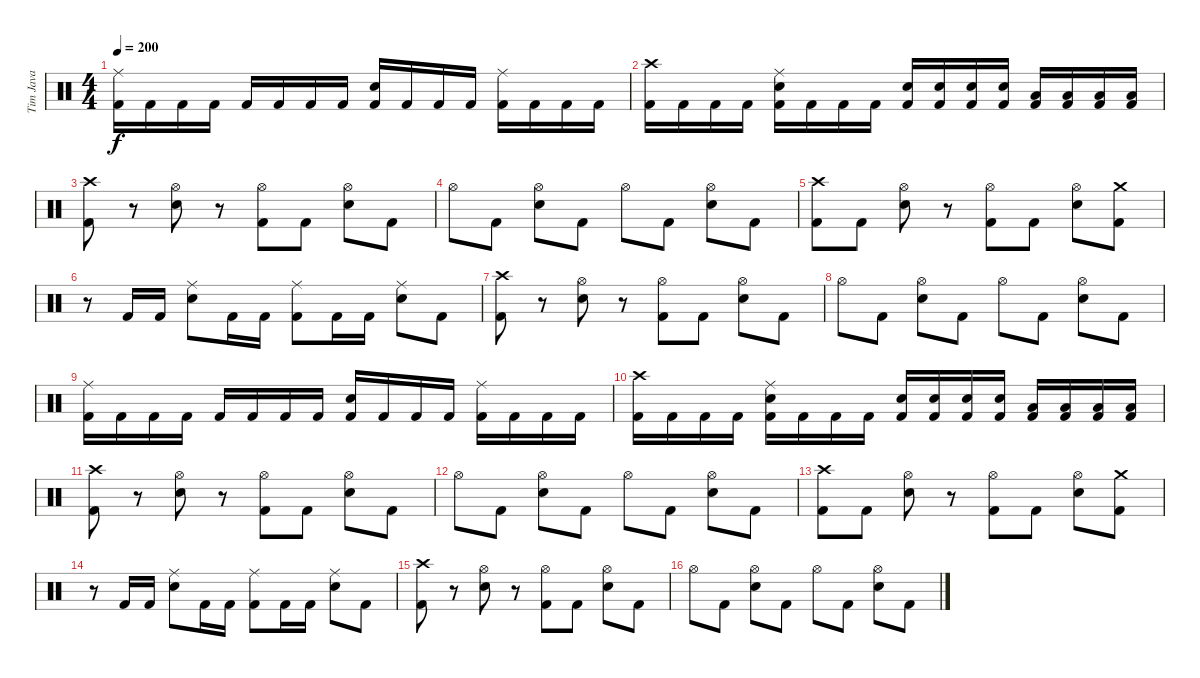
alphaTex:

\track ("Tim Java" "Tim Java") {instrument percussion}
\staff {score}
\articulation defaults
\ts (4 4)
\tempo 200
\clef neutral
\ks c
("Ride (middle)" "Kick (hit) 2").16{dy f} "Kick (hit) 2".16 "Kick (hit) 2".16 "Kick (hit) 2".16 "Kick (hit) 2".16 "Kick (hit) 2".16 "Kick (hit) 2".16 "Kick (hit) 2".16 ("Electric Snare (hit)" "Kick (hit) 2").16 "Kick (hit) 2".16 "Kick (hit) 2".16 "Kick (hit) 2".16 ("Ride (middle)" "Kick (hit) 2").16 "Kick (hit) 2".16 "Kick (hit) 2".16 "Kick (hit) 2".16 |
("Crash high (hit)" "Kick (hit) 2").16 "Kick (hit) 2".16 "Kick (hit) 2".16 "Kick (hit) 2".16 ("Ride (middle)" "Electric Snare (hit)" "Kick (hit) 2").16 "Kick (hit) 2".16 "Kick (hit) 2".16 "Kick (hit) 2".16 ("Electric Snare (hit)" "Kick (hit) 2").16 ("Electric Snare (hit)" "Kick (hit) 2").16 ("Electric Snare (hit)" "Kick (hit) 2").16 ("Electric Snare (hit)" "Kick (hit) 2").16 ("Low Tom (hit)" "Kick (hit) 2").16 ("Low Tom (hit)" "Kick (hit) 2").16 ("Low Tom (hit)" "Kick (hit) 2").16 ("Low Tom (hit)" "Kick (hit) 2").16 |
("Crash high (hit)" "Kick (hit) 2").8 r.8 ("Hi-Hat (open)" "Electric Snare (hit)").8 r.8 ("Hi-Hat (open)" "Kick (hit) 2").8 "Kick (hit) 2".8 ("Hi-Hat (open)" "Electric Snare (hit)").8 "Kick (hit) 2".8 |
"Hi-Hat (open)".8 "Kick (hit) 2".8 ("Hi-Hat (open)" "Electric Snare (hit)").8 "Kick (hit) 2".8 "Hi-Hat (open)".8 "Kick (hit) 2".8 ("Hi-Hat (open)" "Electric Snare (hit)").8 "Kick (hit) 2".8 |
("Crash high (hit)" "Kick (hit) 2").8 "Kick (hit) 2".8 ("Hi-Hat (open)" "Electric Snare (hit)").8 r.8 ("Hi-Hat (open)" "Kick (hit) 2").8 "Kick (hit) 2".8 ("Hi-Hat (open)" "Electric Snare (hit)").8 ("Crash medium (hit)" "Kick (hit) 2").8 |
r.8 "Kick (hit) 2".16 "Kick (hit) 2".16 ("Ride (middle)" "Electric Snare (hit)").8 "Kick (hit) 2".16 "Kick (hit) 2".16 ("Ride (middle)" "Kick (hit) 2").8 "Kick (hit) 2".16 "Kick (hit) 2".16 ("Ride (middle)" "Electric Snare (hit)").8 "Kick (hit) 2".8 |
("Crash high (hit)" "Kick (hit) 2").8 r.8 ("Hi-Hat (open)" "Electric Snare (hit)").8 r.8 ("Hi-Hat (open)" "Kick (hit) 2").8 "Kick (hit) 2".8 ("Hi-Hat (open)" "Electric Snare (hit)").8 "Kick (hit) 2".8 |
"Hi-Hat (open)".8 "Kick (hit) 2".8 ("Hi-Hat (open)" "Electric Snare (hit)").8 "Kick (hit) 2".8 "Hi-Hat (open)".8 "Kick (hit) 2".8 ("Hi-Hat (open)" "Electric Snare (hit)").8 "Kick (hit) 2".8 |
("Ride (middle)" "Kick (hit) 2").16 "Kick (hit) 2".16 "Kick (hit) 2".16 "Kick (hit) 2".16 "Kick (hit) 2".16 "Kick (hit) 2".16 "Kick (hit) 2".16 "Kick (hit) 2".16 ("Electric Snare (hit)" "Kick (hit) 2").16 "Kick (hit) 2".16 "Kick (hit) 2".16 "Kick (hit) 2".16 ("Ride (middle)" "Kick (hit) 2").16 "Kick (hit) 2".16 "Kick (hit) 2".16 "Kick (hit) 2".16 |
("Crash high (hit)" "Kick (hit) 2").16 "Kick (hit) 2".16 "Kick (hit) 2".16 "Kick (hit) 2".16 ("Ride (middle)" "Electric Snare (hit)" "Kick (hit) 2").16 "Kick (hit) 2".16 "Kick (hit) 2".16 "Kick (hit) 2".16 ("Electric Snare (hit)" "Kick (hit) 2").16 ("Electric Snare (hit)" "Kick (hit) 2").16 ("Electric Snare (hit)" "Kick (hit) 2").16 ("Electric Snare (hit)" "Kick (hit) 2").16 ("Low Tom (hit)" "Kick (hit) 2").16 ("Low Tom (hit)" "Kick (hit) 2").16 ("Low Tom (hit)" "Kick (hit) 2").16 ("Low Tom (hit)" "Kick (hit) 2").16 |
("Crash high (hit)" "Kick (hit) 2").8 r.8 ("Hi-Hat (open)" "Electric Snare (hit)").8 r.8 ("Hi-Hat (open)" "Kick (hit) 2").8 "Kick (hit) 2".8 ("Hi-Hat (open)" "Electric Snare (hit)").8 "Kick (hit) 2".8 |
"Hi-Hat (open)".8 "Kick (hit) 2".8 ("Hi-Hat (open)" "Electric Snare (hit)").8 "Kick (hit) 2".8 "Hi-Hat (open)".8 "Kick (hit) 2".8 ("Hi-Hat (open)" "Electric Snare (hit)").8 "Kick (hit) 2".8 |
("Crash high (hit)" "Kick (hit) 2").8 "Kick (hit) 2".8 ("Hi-Hat (open)" "Electric Snare (hit)").8 r.8 ("Hi-Hat (open)" "Kick (hit) 2").8 "Kick (hit) 2".8 ("Hi-Hat (open)" "Electric Snare (hit)").8 ("Crash medium (hit)" "Kick (hit) 2").8 |
r.8 "Kick (hit) 2".16 "Kick (hit) 2".16 ("Ride (middle)" "Electric Snare (hit)").8 "Kick (hit) 2".16 "Kick (hit) 2".16 ("Ride (middle)" "Kick (hit) 2").8 "Kick (hit) 2".16 "Kick (hit) 2".16 ("Ride (middle)" "Electric Snare (hit)").8 "Kick (hit) 2".8 |
("Crash high (hit)" "Kick (hit) 2").8 r.8 ("Hi-Hat (open)" "Electric Snare (hit)").8 r.8 ("Hi-Hat (open)" "Kick (hit) 2").8 "Kick (hit) 2".8 ("Hi-Hat (open)" "Electric Snare (hit)").8 "Kick (hit) 2".8 |
"Hi-Hat (open)".8 "Kick (hit) 2".8 ("Hi-Hat (open)" "Electric Snare (hit)").8 "Kick (hit) 2".8 "Hi-Hat (open)".8 "Kick (hit) 2".8 ("Hi-Hat (open)" "Electric Snare (hit)").8 "Kick (hit) 2".8
